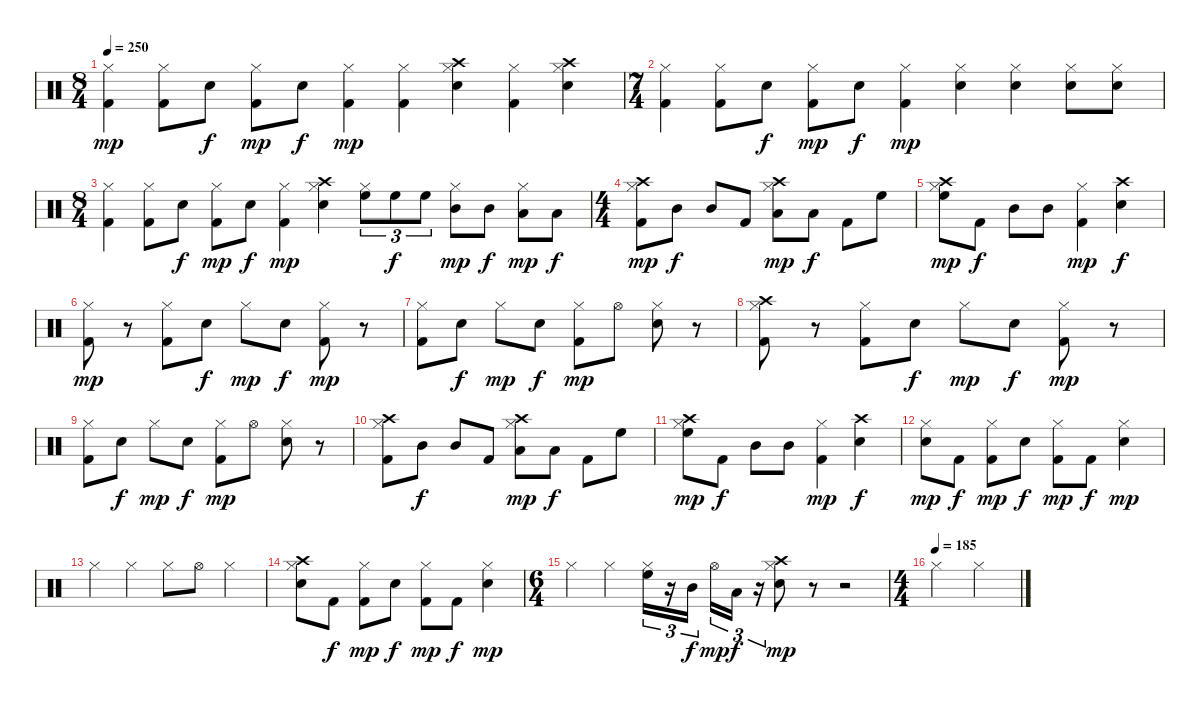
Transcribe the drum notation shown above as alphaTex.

\track "" {instrument percussion}
\staff {score}
\articulation defaults
\ts (8 4)
\tempo 250
\clef neutral
\ks c
("Kick (hit) 2" "Hi-Hat (closed)").4{dy mp} ("Kick (hit) 2" "Hi-Hat (closed)").8 "Electric Snare (hit)".8{dy f} ("Kick (hit) 2" "Hi-Hat (closed)").8{dy mp} "Electric Snare (hit)".8{dy f} ("Kick (hit) 2" "Hi-Hat (closed)").4{dy mp} ("Kick (hit) 2" "Hi-Hat (closed)").4 ("Electric Snare (hit)" "Hi-Hat (closed)" "Crash high (hit)").4 ("Kick (hit) 2" "Hi-Hat (closed)").4 ("Electric Snare (hit)" "Hi-Hat (closed)" "Crash high (hit)").4 |
\ts (7 4)
("Kick (hit) 2" "Hi-Hat (closed)").4 ("Kick (hit) 2" "Hi-Hat (closed)").8 "Electric Snare (hit)".8{dy f} ("Kick (hit) 2" "Hi-Hat (closed)").8{dy mp} "Electric Snare (hit)".8{dy f} ("Kick (hit) 2" "Hi-Hat (closed)").4{dy mp} ("Electric Snare (hit)" "Hi-Hat (closed)").4 ("Electric Snare (hit)" "Hi-Hat (closed)").4 ("Electric Snare (hit)" "Hi-Hat (closed)").8 ("Electric Snare (hit)" "Hi-Hat (closed)").8 |
\ts (8 4)
("Kick (hit) 2" "Hi-Hat (closed)").4 ("Kick (hit) 2" "Hi-Hat (closed)").8 "Electric Snare (hit)".8{dy f} ("Kick (hit) 2" "Hi-Hat (closed)").8{dy mp} "Electric Snare (hit)".8{dy f} ("Kick (hit) 2" "Hi-Hat (closed)").4{dy mp} ("Electric Snare (hit)" "Hi-Hat (closed)" "Crash high (hit)").4 ("High Floor Tom (hit)" "Hi-Hat (closed)").8{tu (3 2) balance 16} "High Floor Tom (hit)".8{tu (3 2) dy f} "High Floor Tom (hit)".8{tu (3 2)} ("Mid Tom (hit)" "Hi-Hat (closed)").8{dy mp balance 8} "Mid Tom (hit)".8{dy f} ("Low Tom (hit)" "Hi-Hat (closed)").8{dy mp balance 0} "Low Tom (hit)".8{dy f} |
\ts (4 4)
("Hi-Hat (closed)" "Kick (hit) 2" "Crash high (hit)").8{dy mp} "Mid Tom (hit)".8{dy f} "Mid Tom (hit)".8 "Kick (hit) 2".8 ("Hi-Hat (closed)" "Low Tom (hit)" "Crash high (hit)").8{dy mp balance 2} "Low Tom (hit)".8{dy f} "Kick (hit) 2".8{balance 8} "High Floor Tom (hit)".8{balance 14} |
("Hi-Hat (closed)" "High Floor Tom (hit)" "Crash high (hit)").8{dy mp} "Kick (hit) 2".8{dy f balance 8} "Mid Tom (hit)".8 "Mid Tom (hit)".8 ("Hi-Hat (closed)" "Kick (hit) 2").4{dy mp} ("Electric Snare (hit)" "Crash high (hit)").4{dy f} |
("Kick (hit) 2" "Hi-Hat (closed)").8{dy mp} r.8 ("Kick (hit) 2" "Hi-Hat (closed)").8 "Electric Snare (hit)".8{dy f} "Hi-Hat (closed)".8{dy mp} "Electric Snare (hit)".8{dy f} ("Kick (hit) 2" "Hi-Hat (closed)").8{dy mp} r.8 |
("Kick (hit) 2" "Hi-Hat (closed)").8 "Electric Snare (hit)".8{dy f} "Hi-Hat (closed)".8{dy mp} "Electric Snare (hit)".8{dy f} ("Kick (hit) 2" "Hi-Hat (closed)").8{dy mp} "Hi-Hat (open)".8 ("Electric Snare (hit)" "Hi-Hat (closed)").8 r.8 |
("Kick (hit) 2" "Hi-Hat (closed)" "Crash high (hit)").8 r.8 ("Kick (hit) 2" "Hi-Hat (closed)").8 "Electric Snare (hit)".8{dy f} "Hi-Hat (closed)".8{dy mp} "Electric Snare (hit)".8{dy f} ("Kick (hit) 2" "Hi-Hat (closed)").8{dy mp} r.8 |
("Kick (hit) 2" "Hi-Hat (closed)").8 "Electric Snare (hit)".8{dy f} "Hi-Hat (closed)".8{dy mp} "Electric Snare (hit)".8{dy f} ("Kick (hit) 2" "Hi-Hat (closed)").8{dy mp} "Hi-Hat (open)".8 ("Electric Snare (hit)" "Hi-Hat (closed)").8 r.8 |
("Hi-Hat (closed)" "Kick (hit) 2" "Crash high (hit)").8 "Mid Tom (hit)".8{dy f} "Mid Tom (hit)".8 "Kick (hit) 2".8 ("Hi-Hat (closed)" "Low Tom (hit)" "Crash high (hit)").8{dy mp balance 2} "Low Tom (hit)".8{dy f} "Kick (hit) 2".8{balance 8} "High Floor Tom (hit)".8{balance 14} |
("Hi-Hat (closed)" "High Floor Tom (hit)" "Crash high (hit)").8{dy mp} "Kick (hit) 2".8{dy f balance 8} "Mid Tom (hit)".8 "Mid Tom (hit)".8 ("Hi-Hat (closed)" "Kick (hit) 2").4{dy mp} ("Electric Snare (hit)" "Crash high (hit)").4{dy f} |
("Electric Snare (hit)" "Hi-Hat (closed)").8{dy mp} "Kick (hit) 2".8{dy f} ("Kick (hit) 2" "Hi-Hat (closed)").8{dy mp} "Electric Snare (hit)".8{dy f} ("Kick (hit) 2" "Hi-Hat (closed)").8{dy mp} "Kick (hit) 2".8{dy f} ("Electric Snare (hit)" "Hi-Hat (closed)").4{dy mp} |
"Hi-Hat (closed)".4 "Hi-Hat (closed)".4 "Hi-Hat (closed)".8 "Hi-Hat (open)".8 "Hi-Hat (closed)".4 |
("Electric Snare (hit)" "Hi-Hat (closed)" "Crash high (hit)").8 "Kick (hit) 2".8{dy f} ("Kick (hit) 2" "Hi-Hat (closed)").8{dy mp} "Electric Snare (hit)".8{dy f} ("Kick (hit) 2" "Hi-Hat (closed)").8{dy mp} "Kick (hit) 2".8{dy f} ("Electric Snare (hit)" "Hi-Hat (closed)").4{dy mp} |
\ts (6 4)
"Hi-Hat (closed)".4 "Hi-Hat (closed)".4 ("Hi-Hat (closed)" "High Floor Tom (hit)").16{tu (3 2) balance 15} r.16{tu (3 2)} "Mid Tom (hit)".16{tu (3 2) dy f balance 8} "Hi-Hat (open)".16{tu (3 2) dy mp} "Low Tom (hit)".16{tu (3 2) dy f balance 1} r.16{tu (3 2)} ("Hi-Hat (closed)" "Crash high (hit)" "Electric Snare (hit)").8{dy mp balance 8} r.8 r.2 |
\ts (4 4)
\tempo (185)
"Hi-Hat (closed)".2 "Hi-Hat (closed)".2
